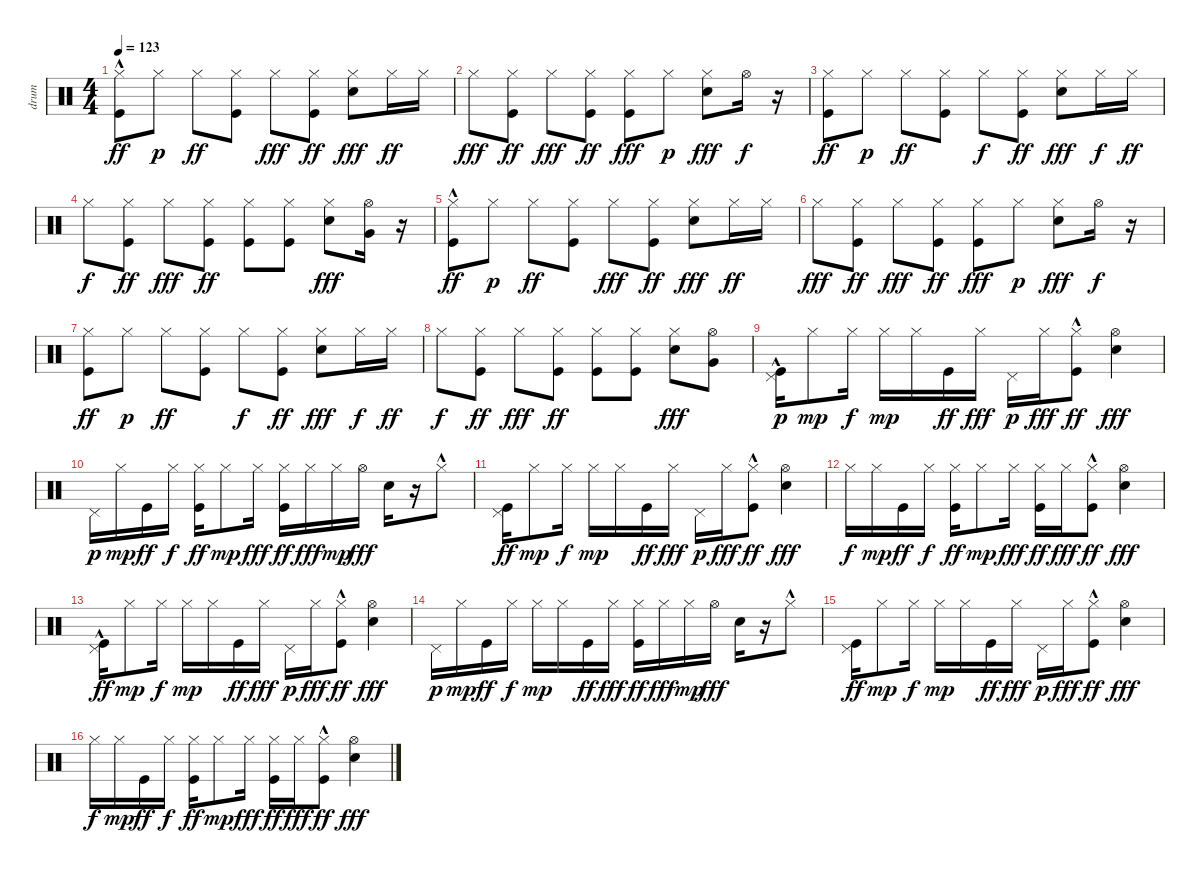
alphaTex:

\track ("drum" "drum") {instrument percussion}
\staff {score}
\articulation defaults
\ts (4 4)
\tempo 123
\clef neutral
\ks c
("Hi-Hat (closed)" "Kick (hit)"{hac}).8{dy ff} "Hi-Hat (closed)".8{dy p} "Hi-Hat (closed)".8{dy ff} ("Hi-Hat (closed)" "Kick (hit)").8 "Hi-Hat (closed)".8{dy fff} ("Hi-Hat (closed)" "Kick (hit)").8{dy ff} ("Electric Snare (hit)" "Hi-Hat (closed)").8{dy fff} "Hi-Hat (closed)".16{dy ff} "Hi-Hat (closed)".16 |
"Hi-Hat (closed)".8{dy fff} ("Hi-Hat (closed)" "Kick (hit)").8{dy ff} "Hi-Hat (closed)".8{dy fff} ("Hi-Hat (closed)" "Kick (hit)").8{dy ff} ("Kick (hit)" "Hi-Hat (closed)").8{dy fff} "Hi-Hat (closed)".8{dy p} ("Electric Snare (hit)" "Hi-Hat (closed)").8{dy fff} "Hi-Hat (open)".16{dy f} r.16 |
("Hi-Hat (closed)" "Kick (hit)").8{dy ff} "Hi-Hat (closed)".8{dy p} "Hi-Hat (closed)".8{dy ff} ("Hi-Hat (closed)" "Kick (hit)").8 "Hi-Hat (closed)".8{dy f} ("Hi-Hat (closed)" "Kick (hit)").8{dy ff} ("Hi-Hat (closed)" "Electric Snare (hit)").8{dy fff} "Hi-Hat (closed)".16{dy f} "Hi-Hat (closed)".16{dy ff} |
"Hi-Hat (closed)".8{dy f} ("Hi-Hat (closed)" "Kick (hit)").8{dy ff} "Hi-Hat (closed)".8{dy fff} ("Hi-Hat (closed)" "Kick (hit)").8{dy ff} ("Hi-Hat (closed)" "Kick (hit)").8 ("Hi-Hat (closed)" "Kick (hit)").8 ("Hi-Hat (closed)" "Electric Snare (hit)").8{dy fff} ("Very Low Tom (hit)" "Hi-Hat (open)").16 r.16 |
("Hi-Hat (closed)" "Kick (hit)"{hac}).8{dy ff} "Hi-Hat (closed)".8{dy p} "Hi-Hat (closed)".8{dy ff} ("Hi-Hat (closed)" "Kick (hit)").8 "Hi-Hat (closed)".8{dy fff} ("Hi-Hat (closed)" "Kick (hit)").8{dy ff} ("Electric Snare (hit)" "Hi-Hat (closed)").8{dy fff} "Hi-Hat (closed)".16{dy ff} "Hi-Hat (closed)".16 |
"Hi-Hat (closed)".8{dy fff} ("Hi-Hat (closed)" "Kick (hit)").8{dy ff} "Hi-Hat (closed)".8{dy fff} ("Hi-Hat (closed)" "Kick (hit)").8{dy ff} ("Kick (hit)" "Hi-Hat (closed)").8{dy fff} "Hi-Hat (closed)".8{dy p} ("Electric Snare (hit)" "Hi-Hat (closed)").8{dy fff} "Hi-Hat (open)".16{dy f} r.16 |
("Hi-Hat (closed)" "Kick (hit)").8{dy ff} "Hi-Hat (closed)".8{dy p} "Hi-Hat (closed)".8{dy ff} ("Hi-Hat (closed)" "Kick (hit)").8 "Hi-Hat (closed)".8{dy f} ("Hi-Hat (closed)" "Kick (hit)").8{dy ff} ("Hi-Hat (closed)" "Electric Snare (hit)").8{dy fff} "Hi-Hat (closed)".16{dy f} "Hi-Hat (closed)".16{dy ff} |
"Hi-Hat (closed)".8{dy f} ("Hi-Hat (closed)" "Kick (hit)").8{dy ff} "Hi-Hat (closed)".8{dy fff} ("Hi-Hat (closed)" "Kick (hit)").8{dy ff} ("Hi-Hat (closed)" "Kick (hit)").8 ("Hi-Hat (closed)" "Kick (hit)").8 ("Hi-Hat (closed)" "Electric Snare (hit)").8{dy fff} ("Very Low Tom (hit)" "Hi-Hat (open)").8 |
("Kick (hit)"{hac} "Pedal Hi-Hat (hit)").16{dy p} "Hi-Hat (closed)".8{dy mp} "Hi-Hat (closed)".16{dy f} "Hi-Hat (closed)".16{dy mp} "Hi-Hat (closed)".16 "Kick (hit)".16{dy ff} "Hi-Hat (closed)".16{dy fff} "Pedal Hi-Hat (hit)".16{dy p} "Hi-Hat (closed)".16{dy fff} ("Hi-Hat (closed)"{hac} "Kick (hit)").8{dy ff} ("Electric Snare (hit)" "Hi-Hat (open)").4{dy fff} |
"Pedal Hi-Hat (hit)".16{dy p} "Hi-Hat (closed)".16{dy mp} "Kick (hit)".16{dy ff} "Hi-Hat (closed)".16{dy f} ("Hi-Hat (closed)" "Kick (hit)").16{dy ff} "Hi-Hat (closed)".8{dy mp} "Hi-Hat (closed)".16{dy fff} ("Hi-Hat (closed)" "Kick (hit)").16{dy ff} "Hi-Hat (closed)".16{dy fff} "Hi-Hat (closed)".16{dy mp} "Hi-Hat (open)".16{dy fff} "Electric Snare (hit)".16 r.16 "Hi-Hat (closed)"{hac}.8 |
("Pedal Hi-Hat (hit)" "Kick (hit)").16{dy ff} "Hi-Hat (closed)".8{dy mp} "Hi-Hat (closed)".16{dy f} "Hi-Hat (closed)".16{dy mp} "Hi-Hat (closed)".16 "Kick (hit)".16{dy ff} "Hi-Hat (closed)".16{dy fff} "Pedal Hi-Hat (hit)".16{dy p} "Hi-Hat (closed)".16{dy fff} ("Hi-Hat (closed)"{hac} "Kick (hit)").8{dy ff} ("Hi-Hat (open)" "Electric Snare (hit)").4{dy fff} |
"Hi-Hat (closed)".16{dy f} "Hi-Hat (closed)".16{dy mp} "Kick (hit)".16{dy ff} "Hi-Hat (closed)".16{dy f} ("Hi-Hat (closed)" "Kick (hit)").16{dy ff} "Hi-Hat (closed)".8{dy mp} "Hi-Hat (closed)".16{dy fff} ("Hi-Hat (closed)" "Kick (hit)").16{dy ff} "Hi-Hat (closed)".16{dy fff} ("Hi-Hat (closed)"{hac} "Kick (hit)").8{dy ff} ("Hi-Hat (open)" "Electric Snare (hit)").4{dy fff} |
("Pedal Hi-Hat (hit)" "Kick (hit)"{hac}).16{dy ff} "Hi-Hat (closed)".8{dy mp} "Hi-Hat (closed)".16{dy f} "Hi-Hat (closed)".16{dy mp} "Hi-Hat (closed)".16 "Kick (hit)".16{dy ff} "Hi-Hat (closed)".16{dy fff} "Pedal Hi-Hat (hit)".16{dy p} "Hi-Hat (closed)".16{dy fff} ("Hi-Hat (closed)"{hac} "Kick (hit)").8{dy ff} ("Hi-Hat (open)" "Electric Snare (hit)").4{dy fff} |
"Pedal Hi-Hat (hit)".16{dy p} "Hi-Hat (closed)".16{dy mp} "Kick (hit)".16{dy ff} "Hi-Hat (closed)".16{dy f} "Hi-Hat (closed)".16{dy mp} "Hi-Hat (closed)".16 "Kick (hit)".16{dy ff} "Hi-Hat (closed)".16{dy fff} ("Hi-Hat (closed)" "Kick (hit)").16{dy ff} "Hi-Hat (closed)".16{dy fff} "Hi-Hat (closed)".16{dy mp} "Hi-Hat (open)".16{dy fff} "Electric Snare (hit)".16 r.16 "Hi-Hat (closed)"{hac}.8 |
("Pedal Hi-Hat (hit)" "Kick (hit)").16{dy ff} "Hi-Hat (closed)".8{dy mp} "Hi-Hat (closed)".16{dy f} "Hi-Hat (closed)".16{dy mp} "Hi-Hat (closed)".16 "Kick (hit)".16{dy ff} "Hi-Hat (closed)".16{dy fff} "Pedal Hi-Hat (hit)".16{dy p} "Hi-Hat (closed)".16{dy fff} ("Hi-Hat (closed)"{hac} "Kick (hit)").8{dy ff} ("Hi-Hat (open)" "Electric Snare (hit)").4{dy fff} |
"Hi-Hat (closed)".16{dy f} "Hi-Hat (closed)".16{dy mp} "Kick (hit)".16{dy ff} "Hi-Hat (closed)".16{dy f} ("Hi-Hat (closed)" "Kick (hit)").16{dy ff} "Hi-Hat (closed)".8{dy mp} "Hi-Hat (closed)".16{dy fff} ("Hi-Hat (closed)" "Kick (hit)").16{dy ff} "Hi-Hat (closed)".16{dy fff} ("Hi-Hat (closed)"{hac} "Kick (hit)").8{dy ff} ("Hi-Hat (open)" "Electric Snare (hit)").4{dy fff}
